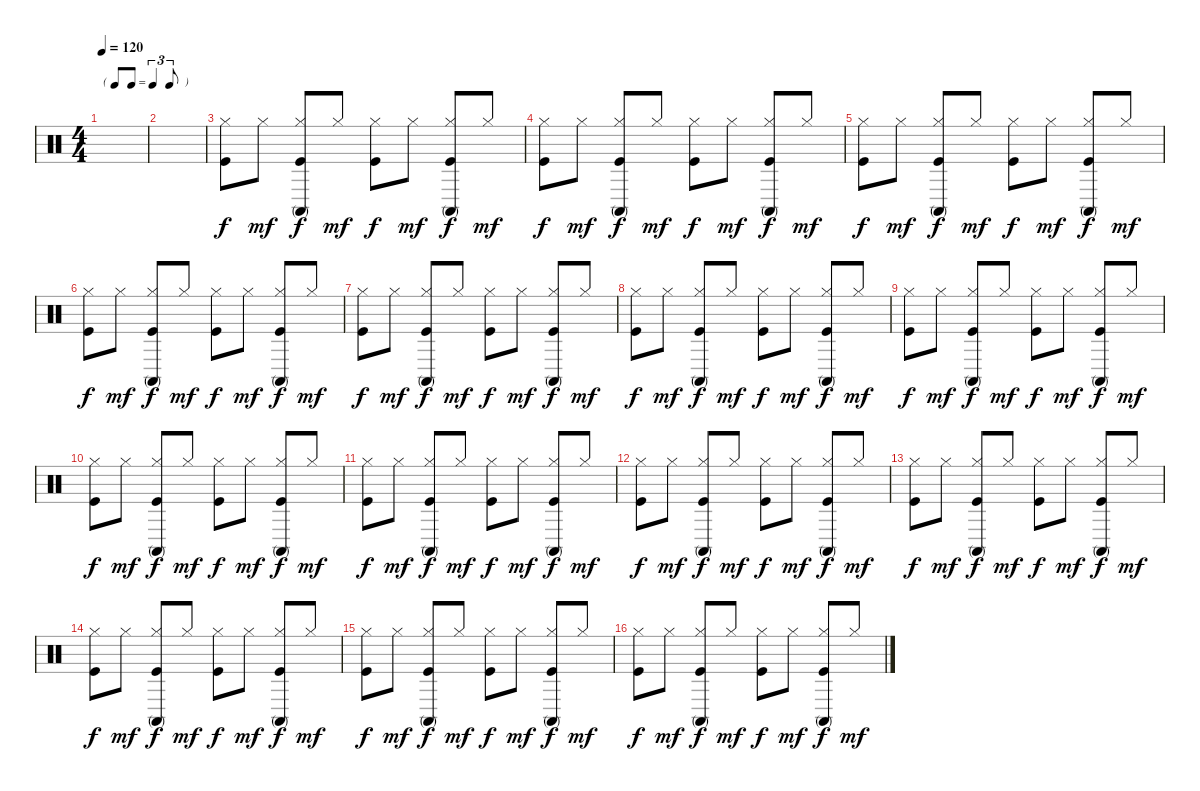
\track "" {instrument percussion}
\staff {score}
\articulation defaults
\ts (4 4)
\tf triplet8th
\tempo 120
\clef neutral
\ks c
|
|
("Hi-Hat (closed)" "Kick (hit)").8 "Hi-Hat (closed)".8{dy mf} ("Conga high (mute)" "Hi-Hat (closed)" "Kick (hit)").8{dy f} "Hi-Hat (closed)".8{dy mf} ("Hi-Hat (closed)" "Kick (hit)").8{dy f} "Hi-Hat (closed)".8{dy mf} ("Conga high (mute)" "Hi-Hat (closed)" "Kick (hit)").8{dy f} "Hi-Hat (closed)".8{dy mf} |
("Hi-Hat (closed)" "Kick (hit)").8{dy f} "Hi-Hat (closed)".8{dy mf} ("Conga high (mute)" "Hi-Hat (closed)" "Kick (hit)").8{dy f} "Hi-Hat (closed)".8{dy mf} ("Hi-Hat (closed)" "Kick (hit)").8{dy f} "Hi-Hat (closed)".8{dy mf} ("Conga high (mute)" "Hi-Hat (closed)" "Kick (hit)").8{dy f} "Hi-Hat (closed)".8{dy mf} |
("Hi-Hat (closed)" "Kick (hit)").8{dy f} "Hi-Hat (closed)".8{dy mf} ("Conga high (mute)" "Hi-Hat (closed)" "Kick (hit)").8{dy f} "Hi-Hat (closed)".8{dy mf} ("Hi-Hat (closed)" "Kick (hit)").8{dy f} "Hi-Hat (closed)".8{dy mf} ("Conga high (mute)" "Hi-Hat (closed)" "Kick (hit)").8{dy f} "Hi-Hat (closed)".8{dy mf} |
("Hi-Hat (closed)" "Kick (hit)").8{dy f} "Hi-Hat (closed)".8{dy mf} ("Conga high (mute)" "Hi-Hat (closed)" "Kick (hit)").8{dy f} "Hi-Hat (closed)".8{dy mf} ("Hi-Hat (closed)" "Kick (hit)").8{dy f} "Hi-Hat (closed)".8{dy mf} ("Conga high (mute)" "Hi-Hat (closed)" "Kick (hit)").8{dy f} "Hi-Hat (closed)".8{dy mf} |
("Hi-Hat (closed)" "Kick (hit)").8{dy f} "Hi-Hat (closed)".8{dy mf} ("Conga high (mute)" "Hi-Hat (closed)" "Kick (hit)").8{dy f} "Hi-Hat (closed)".8{dy mf} ("Hi-Hat (closed)" "Kick (hit)").8{dy f} "Hi-Hat (closed)".8{dy mf} ("Conga high (mute)" "Hi-Hat (closed)" "Kick (hit)").8{dy f} "Hi-Hat (closed)".8{dy mf} |
("Hi-Hat (closed)" "Kick (hit)").8{dy f} "Hi-Hat (closed)".8{dy mf} ("Conga high (mute)" "Hi-Hat (closed)" "Kick (hit)").8{dy f} "Hi-Hat (closed)".8{dy mf} ("Hi-Hat (closed)" "Kick (hit)").8{dy f} "Hi-Hat (closed)".8{dy mf} ("Conga high (mute)" "Hi-Hat (closed)" "Kick (hit)").8{dy f} "Hi-Hat (closed)".8{dy mf} |
("Hi-Hat (closed)" "Kick (hit)").8{dy f} "Hi-Hat (closed)".8{dy mf} ("Conga high (mute)" "Hi-Hat (closed)" "Kick (hit)").8{dy f} "Hi-Hat (closed)".8{dy mf} ("Hi-Hat (closed)" "Kick (hit)").8{dy f} "Hi-Hat (closed)".8{dy mf} ("Conga high (mute)" "Hi-Hat (closed)" "Kick (hit)").8{dy f} "Hi-Hat (closed)".8{dy mf} |
("Hi-Hat (closed)" "Kick (hit)").8{dy f} "Hi-Hat (closed)".8{dy mf} ("Conga high (mute)" "Hi-Hat (closed)" "Kick (hit)").8{dy f} "Hi-Hat (closed)".8{dy mf} ("Hi-Hat (closed)" "Kick (hit)").8{dy f} "Hi-Hat (closed)".8{dy mf} ("Conga high (mute)" "Hi-Hat (closed)" "Kick (hit)").8{dy f} "Hi-Hat (closed)".8{dy mf} |
("Hi-Hat (closed)" "Kick (hit)").8{dy f} "Hi-Hat (closed)".8{dy mf} ("Conga high (mute)" "Hi-Hat (closed)" "Kick (hit)").8{dy f} "Hi-Hat (closed)".8{dy mf} ("Hi-Hat (closed)" "Kick (hit)").8{dy f} "Hi-Hat (closed)".8{dy mf} ("Conga high (mute)" "Hi-Hat (closed)" "Kick (hit)").8{dy f} "Hi-Hat (closed)".8{dy mf} |
("Hi-Hat (closed)" "Kick (hit)").8{dy f} "Hi-Hat (closed)".8{dy mf} ("Conga high (mute)" "Hi-Hat (closed)" "Kick (hit)").8{dy f} "Hi-Hat (closed)".8{dy mf} ("Hi-Hat (closed)" "Kick (hit)").8{dy f} "Hi-Hat (closed)".8{dy mf} ("Conga high (mute)" "Hi-Hat (closed)" "Kick (hit)").8{dy f} "Hi-Hat (closed)".8{dy mf} |
("Hi-Hat (closed)" "Kick (hit)").8{dy f} "Hi-Hat (closed)".8{dy mf} ("Conga high (mute)" "Hi-Hat (closed)" "Kick (hit)").8{dy f} "Hi-Hat (closed)".8{dy mf} ("Hi-Hat (closed)" "Kick (hit)").8{dy f} "Hi-Hat (closed)".8{dy mf} ("Conga high (mute)" "Hi-Hat (closed)" "Kick (hit)").8{dy f} "Hi-Hat (closed)".8{dy mf} |
("Hi-Hat (closed)" "Kick (hit)").8{dy f} "Hi-Hat (closed)".8{dy mf} ("Conga high (mute)" "Hi-Hat (closed)" "Kick (hit)").8{dy f} "Hi-Hat (closed)".8{dy mf} ("Hi-Hat (closed)" "Kick (hit)").8{dy f} "Hi-Hat (closed)".8{dy mf} ("Conga high (mute)" "Hi-Hat (closed)" "Kick (hit)").8{dy f} "Hi-Hat (closed)".8{dy mf} |
("Hi-Hat (closed)" "Kick (hit)").8{dy f} "Hi-Hat (closed)".8{dy mf} ("Conga high (mute)" "Hi-Hat (closed)" "Kick (hit)").8{dy f} "Hi-Hat (closed)".8{dy mf} ("Hi-Hat (closed)" "Kick (hit)").8{dy f} "Hi-Hat (closed)".8{dy mf} ("Conga high (mute)" "Hi-Hat (closed)" "Kick (hit)").8{dy f} "Hi-Hat (closed)".8{dy mf} |
("Hi-Hat (closed)" "Kick (hit)").8{dy f} "Hi-Hat (closed)".8{dy mf} ("Conga high (mute)" "Hi-Hat (closed)" "Kick (hit)").8{dy f} "Hi-Hat (closed)".8{dy mf} ("Hi-Hat (closed)" "Kick (hit)").8{dy f} "Hi-Hat (closed)".8{dy mf} ("Conga high (mute)" "Hi-Hat (closed)" "Kick (hit)").8{dy f} "Hi-Hat (closed)".8{dy mf}
